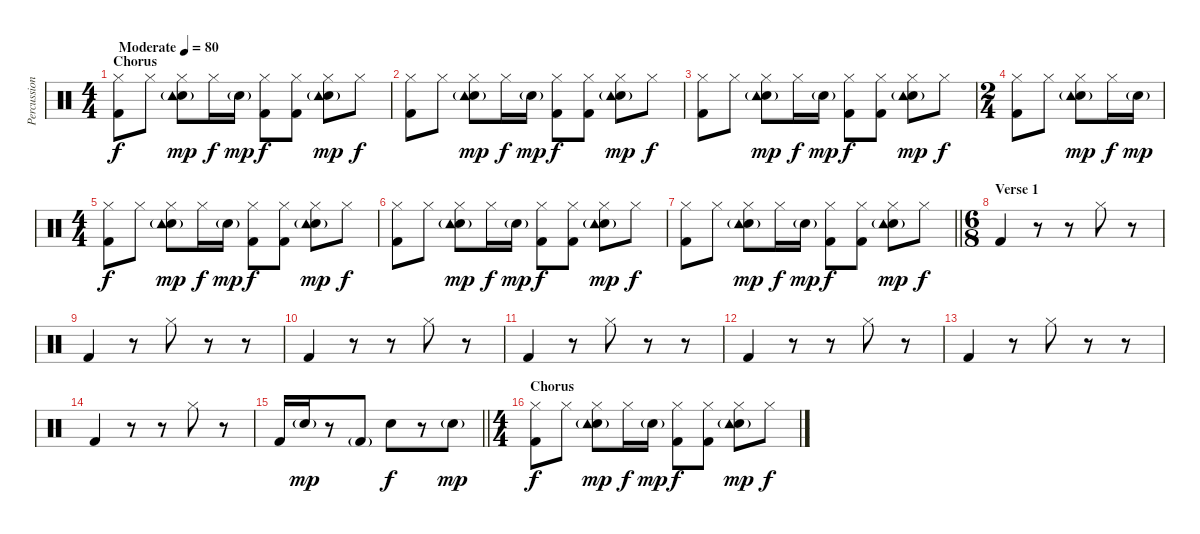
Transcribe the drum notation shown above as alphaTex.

\track ("Percussion" "Percussion") {instrument percussion}
\staff {score}
\articulation defaults
\ts (4 4)
\section ("" "Chorus")
\tempo (80 "Moderate")
\clef neutral
\ks c
("Hi-Hat (closed)" "Kick (hit) 2").8{dy f} "Hi-Hat (closed)".8 ("Hi-Hat (closed)" "Snare (hit) 2" "Tambourine (hit)"{g}).8{dy mp} "Hi-Hat (closed)".16{dy f} "Snare (hit) 2"{g}.16{dy mp} ("Hi-Hat (closed)" "Kick (hit) 2").8{dy f} ("Hi-Hat (closed)" "Kick (hit) 2").8 ("Hi-Hat (closed)" "Snare (hit) 2" "Tambourine (hit)"{g}).8{dy mp} "Hi-Hat (closed)".8{dy f} |
("Hi-Hat (closed)" "Kick (hit) 2").8 "Hi-Hat (closed)".8 ("Hi-Hat (closed)" "Snare (hit) 2" "Tambourine (hit)"{g}).8{dy mp} "Hi-Hat (closed)".16{dy f} "Snare (hit) 2"{g}.16{dy mp} ("Hi-Hat (closed)" "Kick (hit) 2").8{dy f} ("Hi-Hat (closed)" "Kick (hit) 2").8 ("Hi-Hat (closed)" "Snare (hit) 2" "Tambourine (hit)"{g}).8{dy mp} "Hi-Hat (closed)".8{dy f} |
("Hi-Hat (closed)" "Kick (hit) 2").8 "Hi-Hat (closed)".8 ("Hi-Hat (closed)" "Snare (hit) 2" "Tambourine (hit)"{g}).8{dy mp} "Hi-Hat (closed)".16{dy f} "Snare (hit) 2"{g}.16{dy mp} ("Hi-Hat (closed)" "Kick (hit) 2").8{dy f} ("Hi-Hat (closed)" "Kick (hit) 2").8 ("Hi-Hat (closed)" "Snare (hit) 2" "Tambourine (hit)"{g}).8{dy mp} "Hi-Hat (closed)".8{dy f} |
\ts (2 4)
("Hi-Hat (closed)" "Kick (hit) 2").8 "Hi-Hat (closed)".8 ("Hi-Hat (closed)" "Snare (hit) 2" "Tambourine (hit)"{g}).8{dy mp} "Hi-Hat (closed)".16{dy f} "Snare (hit) 2"{g}.16{dy mp} |
\ts (4 4)
("Hi-Hat (closed)" "Kick (hit) 2").8{dy f} "Hi-Hat (closed)".8 ("Hi-Hat (closed)" "Snare (hit) 2" "Tambourine (hit)"{g}).8{dy mp} "Hi-Hat (closed)".16{dy f} "Snare (hit) 2"{g}.16{dy mp} ("Hi-Hat (closed)" "Kick (hit) 2").8{dy f} ("Hi-Hat (closed)" "Kick (hit) 2").8 ("Hi-Hat (closed)" "Snare (hit) 2" "Tambourine (hit)"{g}).8{dy mp} "Hi-Hat (closed)".8{dy f} |
("Hi-Hat (closed)" "Kick (hit) 2").8 "Hi-Hat (closed)".8 ("Hi-Hat (closed)" "Snare (hit) 2" "Tambourine (hit)"{g}).8{dy mp} "Hi-Hat (closed)".16{dy f} "Snare (hit) 2"{g}.16{dy mp} ("Hi-Hat (closed)" "Kick (hit) 2").8{dy f} ("Hi-Hat (closed)" "Kick (hit) 2").8 ("Hi-Hat (closed)" "Snare (hit) 2" "Tambourine (hit)"{g}).8{dy mp} "Hi-Hat (closed)".8{dy f} |
\barLineRight lightlight
("Hi-Hat (closed)" "Kick (hit) 2").8 "Hi-Hat (closed)".8 ("Hi-Hat (closed)" "Snare (hit) 2" "Tambourine (hit)"{g}).8{dy mp} "Hi-Hat (closed)".16{dy f} "Snare (hit) 2"{g}.16{dy mp} ("Hi-Hat (closed)" "Kick (hit) 2").8{dy f} ("Hi-Hat (closed)" "Kick (hit) 2").8 ("Hi-Hat (closed)" "Snare (hit) 2" "Tambourine (hit)"{g}).8{dy mp} "Hi-Hat (closed)".8{dy f} |
\ts (6 8)
\section ("" "Verse 1")
"Kick (hit) 2".4{volume 6} r.8 r.8 "Hi-Hat (closed)".8{volume 13} r.8 |
"Kick (hit) 2".4{volume 6} r.8 "Hi-Hat (closed)".8{volume 13} r.8 r.8 |
"Kick (hit) 2".4{volume 6} r.8 r.8 "Hi-Hat (closed)".8{volume 13} r.8 |
"Kick (hit) 2".4{volume 6} r.8 "Hi-Hat (closed)".8{volume 13} r.8 r.8 |
"Kick (hit) 2".4{volume 6} r.8 r.8 "Hi-Hat (closed)".8{volume 13} r.8 |
"Kick (hit) 2".4{volume 6} r.8 "Hi-Hat (closed)".8{volume 13} r.8 r.8 |
"Kick (hit) 2".4{volume 6} r.8 r.8 "Hi-Hat (closed)".8{volume 13} r.8 |
\barLineRight lightlight "Kick (hit) 2".16{volume 6} "Snare (hit) 2"{g}.16{dy mp}
r.8 "Kick (hit) 2"{g}.8 "Snare (hit) 2".8{dy f} r.8 "Snare (hit) 2"{g}.8{dy mp} |
\ts (4 4)
\section ("" "Chorus")
("Hi-Hat (closed)" "Kick (hit) 2").8{dy f} "Hi-Hat (closed)".8 ("Hi-Hat (closed)" "Snare (hit) 2" "Tambourine (hit)"{g}).8{dy mp} "Hi-Hat (closed)".16{dy f} "Snare (hit) 2"{g}.16{dy mp} ("Hi-Hat (closed)" "Kick (hit) 2").8{dy f} ("Hi-Hat (closed)" "Kick (hit) 2").8 ("Hi-Hat (closed)" "Snare (hit) 2" "Tambourine (hit)"{g}).8{dy mp} "Hi-Hat (closed)".8{dy f}
